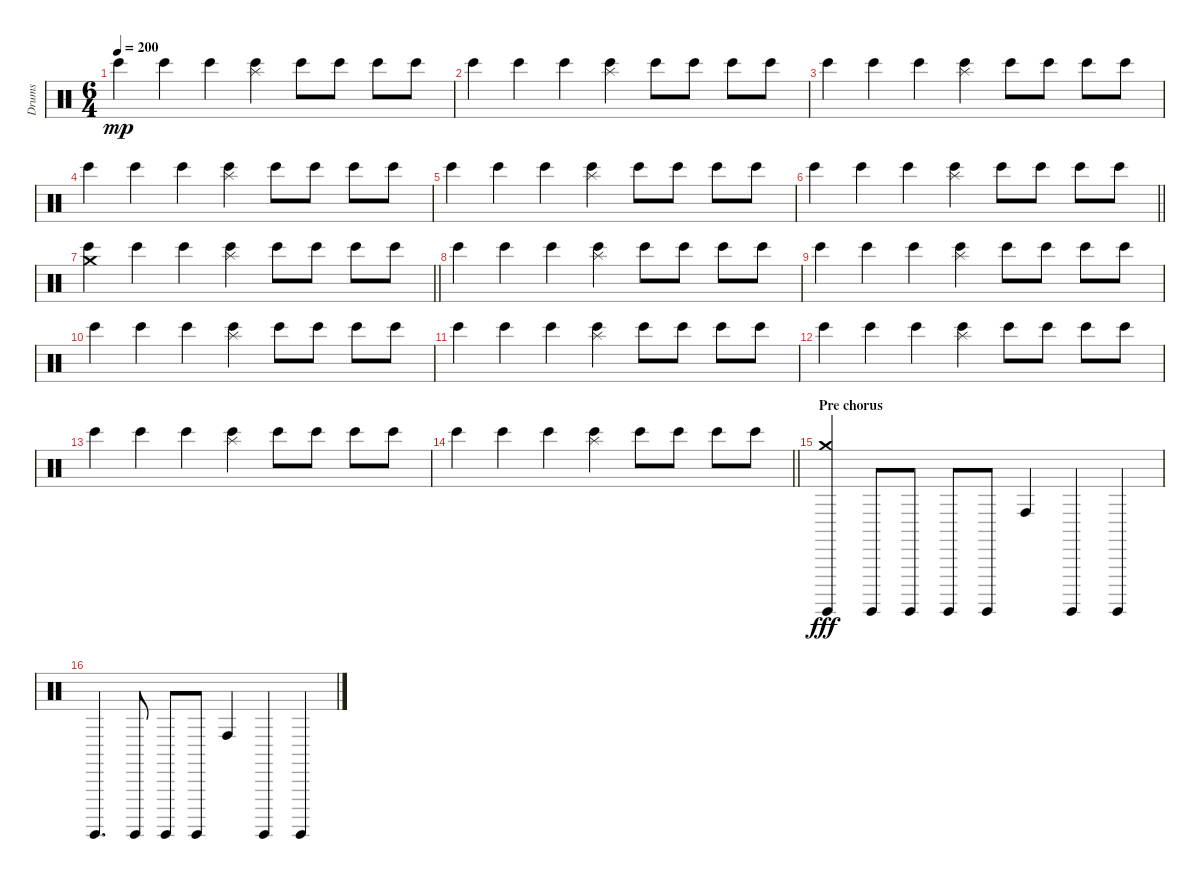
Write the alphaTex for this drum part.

\track ("Drums" "Drums") {instrument percussion}
\staff {score}
\articulation defaults
\ts (6 4)
\tempo 200
\clef neutral
\ks c "Bongo High (hit)".4{dy mp} "Bongo High (hit)".4 "Bongo High (hit)".4
("Splash (hit)" "Bongo High (hit)").4 "Bongo High (hit)".8 "Bongo High (hit)".8 "Bongo High (hit)".8 "Bongo High (hit)".8 |
"Bongo High (hit)".4 "Bongo High (hit)".4 "Bongo High (hit)".4 ("Splash (hit)" "Bongo High (hit)").4 "Bongo High (hit)".8 "Bongo High (hit)".8 "Bongo High (hit)".8 "Bongo High (hit)".8 |
"Bongo High (hit)".4 "Bongo High (hit)".4 "Bongo High (hit)".4 ("Splash (hit)" "Bongo High (hit)").4 "Bongo High (hit)".8 "Bongo High (hit)".8 "Bongo High (hit)".8 "Bongo High (hit)".8 |
"Bongo High (hit)".4 "Bongo High (hit)".4 "Bongo High (hit)".4 ("Splash (hit)" "Bongo High (hit)").4 "Bongo High (hit)".8 "Bongo High (hit)".8 "Bongo High (hit)".8 "Bongo High (hit)".8 |
"Bongo High (hit)".4 "Bongo High (hit)".4 "Bongo High (hit)".4 ("Splash (hit)" "Bongo High (hit)").4 "Bongo High (hit)".8 "Bongo High (hit)".8 "Bongo High (hit)".8 "Bongo High (hit)".8 |
\barLineRight lightlight "Bongo High (hit)".4 "Bongo High (hit)".4 "Bongo High (hit)".4
("Splash (hit)" "Bongo High (hit)").4 "Bongo High (hit)".8 "Bongo High (hit)".8 "Bongo High (hit)".8 "Bongo High (hit)".8 |
\barLineRight lightlight
("Crash medium (hit)" "Bongo High (hit)").4 "Bongo High (hit)".4 "Bongo High (hit)".4 ("Splash (hit)" "Bongo High (hit)").4 "Bongo High (hit)".8 "Bongo High (hit)".8 "Bongo High (hit)".8 "Bongo High (hit)".8 |
"Bongo High (hit)".4 "Bongo High (hit)".4 "Bongo High (hit)".4 ("Splash (hit)" "Bongo High (hit)").4 "Bongo High (hit)".8 "Bongo High (hit)".8 "Bongo High (hit)".8 "Bongo High (hit)".8 |
"Bongo High (hit)".4 "Bongo High (hit)".4 "Bongo High (hit)".4 ("Splash (hit)" "Bongo High (hit)").4 "Bongo High (hit)".8 "Bongo High (hit)".8 "Bongo High (hit)".8 "Bongo High (hit)".8 |
"Bongo High (hit)".4 "Bongo High (hit)".4 "Bongo High (hit)".4 ("Splash (hit)" "Bongo High (hit)").4 "Bongo High (hit)".8 "Bongo High (hit)".8 "Bongo High (hit)".8 "Bongo High (hit)".8 |
"Bongo High (hit)".4 "Bongo High (hit)".4 "Bongo High (hit)".4 ("Splash (hit)" "Bongo High (hit)").4 "Bongo High (hit)".8 "Bongo High (hit)".8 "Bongo High (hit)".8 "Bongo High (hit)".8 |
"Bongo High (hit)".4 "Bongo High (hit)".4 "Bongo High (hit)".4 ("Splash (hit)" "Bongo High (hit)").4 "Bongo High (hit)".8 "Bongo High (hit)".8 "Bongo High (hit)".8 "Bongo High (hit)".8 |
"Bongo High (hit)".4 "Bongo High (hit)".4 "Bongo High (hit)".4 ("Splash (hit)" "Bongo High (hit)").4 "Bongo High (hit)".8 "Bongo High (hit)".8 "Bongo High (hit)".8 "Bongo High (hit)".8 |
\barLineRight lightlight "Bongo High (hit)".4 "Bongo High (hit)".4 "Bongo High (hit)".4
("Splash (hit)" "Bongo High (hit)").4 "Bongo High (hit)".8 "Bongo High (hit)".8 "Bongo High (hit)".8 "Bongo High (hit)".8 |
\section ("" "Pre chorus")
("Crash medium (hit)" "Surdo (hit)").4{dy fff volume 16} "Surdo (hit)".8 "Surdo (hit)".8 "Surdo (hit)".8 "Surdo (hit)".8 "Conga high (hit)".4 "Surdo (hit)".4 "Surdo (hit)".4 |
"Surdo (hit)".4{d} "Surdo (hit)".8 "Surdo (hit)".8 "Surdo (hit)".8 "Conga high (hit)".4 "Surdo (hit)".4 "Surdo (hit)".4
